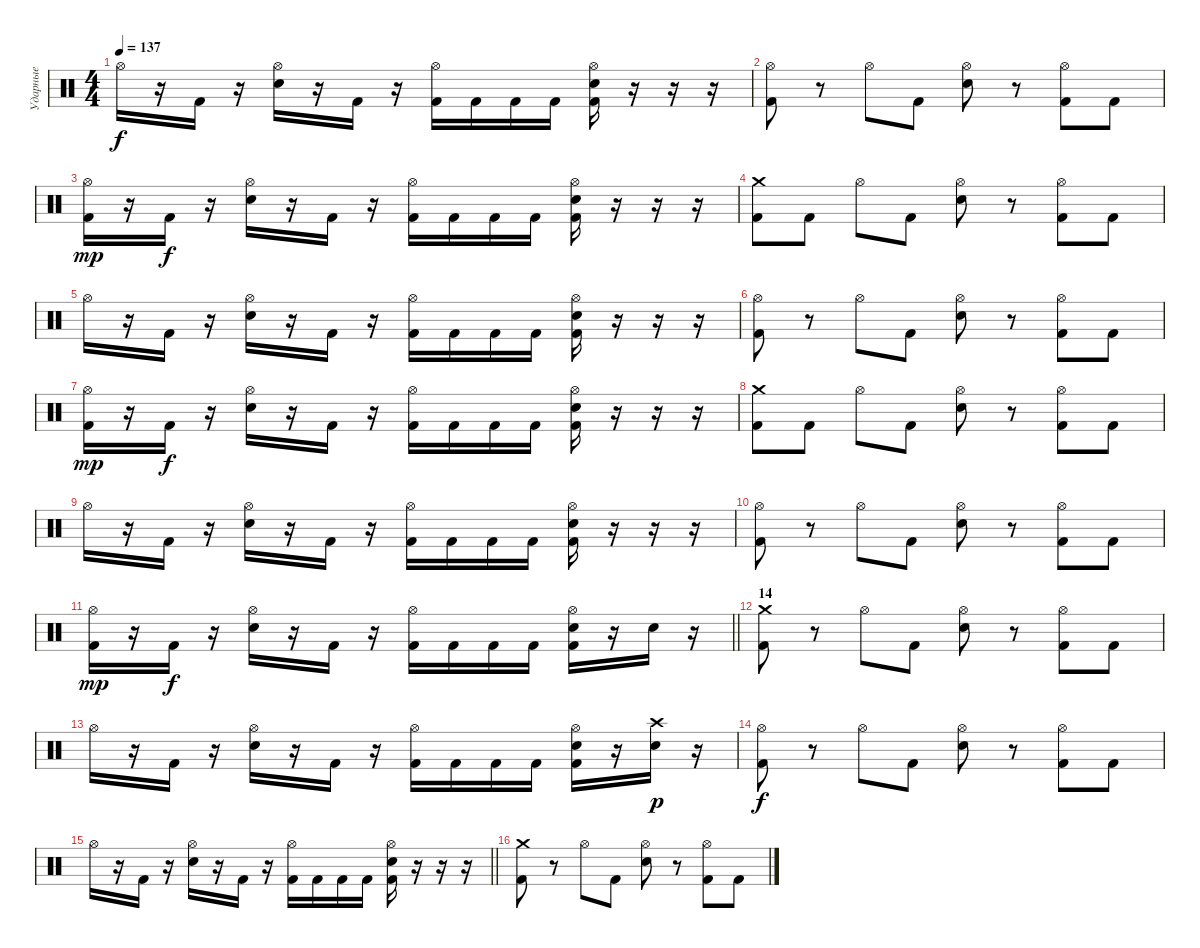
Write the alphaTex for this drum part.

\track ("Ударные" "Ударные") {instrument percussion}
\staff {score}
\articulation defaults
\ts (4 4)
\tempo 137
\clef neutral
\ks c "Hi-Hat (open)".16{dy f}
r.16 "Kick (hit) 2".16 r.16 ("Hi-Hat (open)" "Snare (hit) 2").16 r.16 "Kick (hit) 2".16 r.16 ("Hi-Hat (open)" "Kick (hit) 2").16 "Kick (hit) 2".16 "Kick (hit) 2".16 "Kick (hit) 2".16 ("Hi-Hat (open)" "Snare (hit) 2" "Kick (hit) 2").16 r.16 r.16 r.16 |
("Hi-Hat (open)" "Kick (hit) 2").8 r.8 "Hi-Hat (open)".8 "Kick (hit) 2".8 ("Hi-Hat (open)" "Snare (hit) 2").8 r.8 ("Hi-Hat (open)" "Kick (hit) 2").8 "Kick (hit) 2".8 |
("Hi-Hat (open)" "Kick (hit) 2").16{dy mp} r.16 "Kick (hit) 2".16{dy f} r.16 ("Hi-Hat (open)" "Snare (hit) 2").16 r.16 "Kick (hit) 2".16 r.16 ("Hi-Hat (open)" "Kick (hit) 2").16 "Kick (hit) 2".16 "Kick (hit) 2".16 "Kick (hit) 2".16 ("Hi-Hat (open)" "Snare (hit) 2" "Kick (hit) 2").16 r.16 r.16 r.16 |
("Crash medium (hit)" "Kick (hit) 2").8 "Kick (hit) 2".8 "Hi-Hat (open)".8 "Kick (hit) 2".8 ("Hi-Hat (open)" "Snare (hit) 2").8 r.8 ("Hi-Hat (open)" "Kick (hit) 2").8 "Kick (hit) 2".8 |
"Hi-Hat (open)".16 r.16 "Kick (hit) 2".16 r.16 ("Hi-Hat (open)" "Snare (hit) 2").16 r.16 "Kick (hit) 2".16 r.16 ("Hi-Hat (open)" "Kick (hit) 2").16 "Kick (hit) 2".16 "Kick (hit) 2".16 "Kick (hit) 2".16 ("Hi-Hat (open)" "Snare (hit) 2" "Kick (hit) 2").16 r.16 r.16 r.16 |
("Hi-Hat (open)" "Kick (hit) 2").8 r.8 "Hi-Hat (open)".8 "Kick (hit) 2".8 ("Hi-Hat (open)" "Snare (hit) 2").8 r.8 ("Hi-Hat (open)" "Kick (hit) 2").8 "Kick (hit) 2".8 |
("Hi-Hat (open)" "Kick (hit) 2").16{dy mp} r.16 "Kick (hit) 2".16{dy f} r.16 ("Hi-Hat (open)" "Snare (hit) 2").16 r.16 "Kick (hit) 2".16 r.16 ("Hi-Hat (open)" "Kick (hit) 2").16 "Kick (hit) 2".16 "Kick (hit) 2".16 "Kick (hit) 2".16 ("Hi-Hat (open)" "Snare (hit) 2" "Kick (hit) 2").16 r.16 r.16 r.16 |
("Crash medium (hit)" "Kick (hit) 2").8 "Kick (hit) 2".8 "Hi-Hat (open)".8 "Kick (hit) 2".8 ("Hi-Hat (open)" "Snare (hit) 2").8 r.8 ("Hi-Hat (open)" "Kick (hit) 2").8 "Kick (hit) 2".8 |
"Hi-Hat (open)".16 r.16 "Kick (hit) 2".16 r.16 ("Hi-Hat (open)" "Snare (hit) 2").16 r.16 "Kick (hit) 2".16 r.16 ("Hi-Hat (open)" "Kick (hit) 2").16 "Kick (hit) 2".16 "Kick (hit) 2".16 "Kick (hit) 2".16 ("Hi-Hat (open)" "Snare (hit) 2" "Kick (hit) 2").16 r.16 r.16 r.16 |
("Hi-Hat (open)" "Kick (hit) 2").8 r.8 "Hi-Hat (open)".8 "Kick (hit) 2".8 ("Hi-Hat (open)" "Snare (hit) 2").8 r.8 ("Hi-Hat (open)" "Kick (hit) 2").8 "Kick (hit) 2".8 |
\barLineRight lightlight
("Hi-Hat (open)" "Kick (hit) 2").16{dy mp} r.16 "Kick (hit) 2".16{dy f} r.16 ("Hi-Hat (open)" "Snare (hit) 2").16 r.16 "Kick (hit) 2".16 r.16 ("Hi-Hat (open)" "Kick (hit) 2").16 "Kick (hit) 2".16 "Kick (hit) 2".16 "Kick (hit) 2".16 ("Hi-Hat (open)" "Snare (hit) 2" "Kick (hit) 2").16 r.16 "Snare (hit) 2".16 r.16 |
\section ("" "14")
("Crash medium (hit)" "Kick (hit) 2").8 r.8 "Hi-Hat (open)".8 "Kick (hit) 2".8 ("Hi-Hat (open)" "Snare (hit) 2").8 r.8 ("Hi-Hat (open)" "Kick (hit) 2").8 "Kick (hit) 2".8 |
"Hi-Hat (open)".16 r.16 "Kick (hit) 2".16 r.16 ("Hi-Hat (open)" "Snare (hit) 2").16 r.16 "Kick (hit) 2".16 r.16 ("Hi-Hat (open)" "Kick (hit) 2").16 "Kick (hit) 2".16 "Kick (hit) 2".16 "Kick (hit) 2".16 ("Hi-Hat (open)" "Snare (hit) 2" "Kick (hit) 2").16 r.16 ("Crash high (hit)" "Snare (hit) 2").16{dy p} r.16 |
("Hi-Hat (open)" "Kick (hit) 2").8{dy f} r.8 "Hi-Hat (open)".8 "Kick (hit) 2".8 ("Hi-Hat (open)" "Snare (hit) 2").8 r.8 ("Hi-Hat (open)" "Kick (hit) 2").8 "Kick (hit) 2".8 |
\barLineRight lightlight "Hi-Hat (open)".16
r.16 "Kick (hit) 2".16 r.16 ("Hi-Hat (open)" "Snare (hit) 2").16 r.16 "Kick (hit) 2".16 r.16 ("Hi-Hat (open)" "Kick (hit) 2").16 "Kick (hit) 2".16 "Kick (hit) 2".16 "Kick (hit) 2".16 ("Hi-Hat (open)" "Snare (hit) 2" "Kick (hit) 2").16 r.16 r.16 r.16 |
("Crash medium (hit)" "Kick (hit) 2").8 r.8 "Hi-Hat (open)".8 "Kick (hit) 2".8 ("Hi-Hat (open)" "Snare (hit) 2").8 r.8 ("Hi-Hat (open)" "Kick (hit) 2").8 "Kick (hit) 2".8
